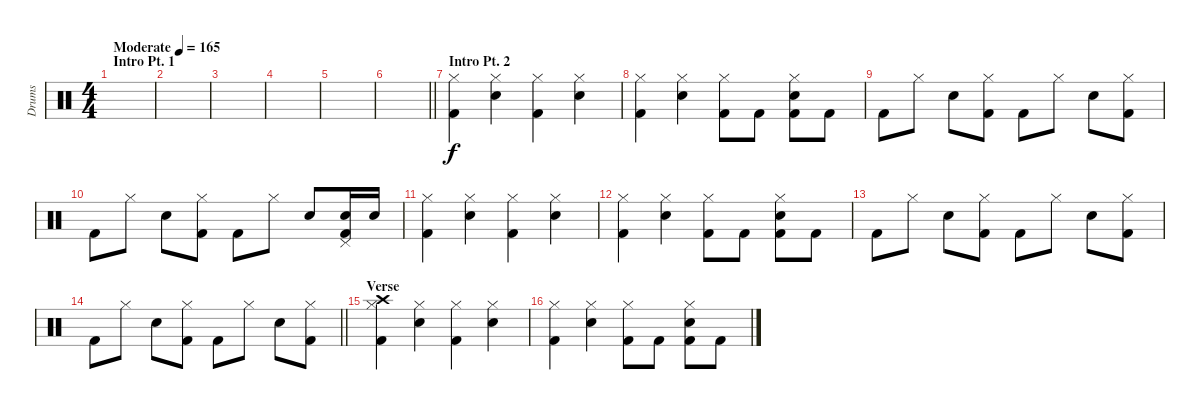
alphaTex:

\track ("Drums" "Drums") {instrument percussion}
\staff {score}
\articulation defaults
\ts (4 4)
\section ("" "Intro Pt. 1")
\tempo (165 "Moderate")
\clef neutral
\ks c
|
|
|
|
|
\barLineRight lightlight
|
\section ("" "Intro Pt. 2")
("Hi-Hat (closed)" "Kick (hit) 2").4 ("Hi-Hat (closed)" "Electric Snare (hit)").4 ("Hi-Hat (closed)" "Kick (hit) 2").4 ("Hi-Hat (closed)" "Electric Snare (hit)").4 |
("Hi-Hat (closed)" "Kick (hit) 2").4 ("Hi-Hat (closed)" "Electric Snare (hit)").4 ("Hi-Hat (closed)" "Kick (hit) 2").8 "Kick (hit) 2".8 ("Hi-Hat (closed)" "Electric Snare (hit)" "Kick (hit) 2").8 "Kick (hit) 2".8 |
"Kick (hit) 2".8 "Hi-Hat (closed)".8 "Electric Snare (hit)".8 ("Hi-Hat (closed)" "Kick (hit) 2").8 "Kick (hit) 2".8 "Hi-Hat (closed)".8 "Electric Snare (hit)".8 ("Hi-Hat (closed)" "Kick (hit) 2").8 |
"Kick (hit) 2".8 "Hi-Hat (closed)".8 "Electric Snare (hit)".8 ("Hi-Hat (closed)" "Kick (hit) 2").8 "Kick (hit) 2".8 "Hi-Hat (closed)".8 "Electric Snare (hit)".8 ("Pedal Hi-Hat (hit)" "Electric Snare (hit)" "Kick (hit) 2").16 "Electric Snare (hit)".16 |
("Hi-Hat (closed)" "Kick (hit) 2").4 ("Hi-Hat (closed)" "Electric Snare (hit)").4 ("Hi-Hat (closed)" "Kick (hit) 2").4 ("Hi-Hat (closed)" "Electric Snare (hit)").4 |
("Hi-Hat (closed)" "Kick (hit) 2").4 ("Hi-Hat (closed)" "Electric Snare (hit)").4 ("Hi-Hat (closed)" "Kick (hit) 2").8 "Kick (hit) 2".8 ("Hi-Hat (closed)" "Electric Snare (hit)" "Kick (hit) 2").8 "Kick (hit) 2".8 |
"Kick (hit) 2".8 "Hi-Hat (closed)".8 "Electric Snare (hit)".8 ("Hi-Hat (closed)" "Kick (hit) 2").8 "Kick (hit) 2".8 "Hi-Hat (closed)".8 "Electric Snare (hit)".8 ("Hi-Hat (closed)" "Kick (hit) 2").8 |
\barLineRight lightlight "Kick (hit) 2".8 "Hi-Hat (closed)".8 "Electric Snare (hit)".8
("Hi-Hat (closed)" "Kick (hit) 2").8 "Kick (hit) 2".8 "Hi-Hat (closed)".8 "Electric Snare (hit)".8 ("Hi-Hat (closed)" "Kick (hit) 2").8 |
\section ("" "Verse")
("Hi-Hat (closed)" "Crash high (hit)" "Kick (hit) 2").4 ("Hi-Hat (closed)" "Electric Snare (hit)").4 ("Hi-Hat (closed)" "Kick (hit) 2").4 ("Hi-Hat (closed)" "Electric Snare (hit)").4 |
("Hi-Hat (closed)" "Kick (hit) 2").4 ("Hi-Hat (closed)" "Electric Snare (hit)").4 ("Hi-Hat (closed)" "Kick (hit) 2").8 "Kick (hit) 2".8 ("Hi-Hat (closed)" "Electric Snare (hit)" "Kick (hit) 2").8 "Kick (hit) 2".8
